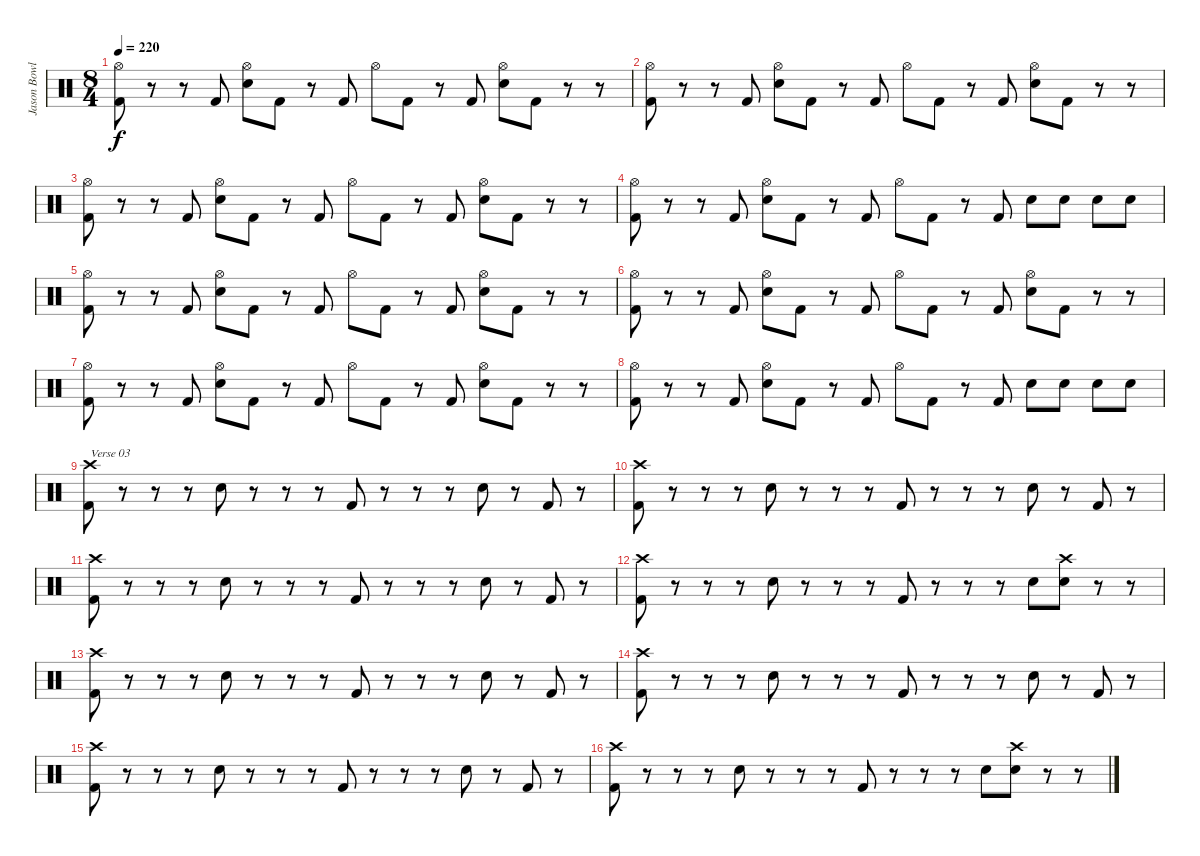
\track ("Jason Bowld" "Jason Bowl") {instrument percussion}
\staff {score}
\articulation defaults
\ts (8 4)
\tempo 220
\clef neutral
\ks c
("Hi-Hat (open)" "Kick (hit) 2").8{dy f} r.8 r.8 "Kick (hit) 2".8 ("Hi-Hat (open)" "Snare (hit) 2").8 "Kick (hit) 2".8 r.8 "Kick (hit) 2".8 "Hi-Hat (open)".8 "Kick (hit) 2".8 r.8 "Kick (hit) 2".8 ("Hi-Hat (open)" "Snare (hit) 2").8 "Kick (hit) 2".8 r.8 r.8 |
("Hi-Hat (open)" "Kick (hit) 2").8 r.8 r.8 "Kick (hit) 2".8 ("Hi-Hat (open)" "Snare (hit) 2").8 "Kick (hit) 2".8 r.8 "Kick (hit) 2".8 "Hi-Hat (open)".8 "Kick (hit) 2".8 r.8 "Kick (hit) 2".8 ("Hi-Hat (open)" "Snare (hit) 2").8 "Kick (hit) 2".8 r.8 r.8 |
("Hi-Hat (open)" "Kick (hit) 2").8 r.8 r.8 "Kick (hit) 2".8 ("Hi-Hat (open)" "Snare (hit) 2").8 "Kick (hit) 2".8 r.8 "Kick (hit) 2".8 "Hi-Hat (open)".8 "Kick (hit) 2".8 r.8 "Kick (hit) 2".8 ("Hi-Hat (open)" "Snare (hit) 2").8 "Kick (hit) 2".8 r.8 r.8 |
("Hi-Hat (open)" "Kick (hit) 2").8 r.8 r.8 "Kick (hit) 2".8 ("Hi-Hat (open)" "Snare (hit) 2").8 "Kick (hit) 2".8 r.8 "Kick (hit) 2".8 "Hi-Hat (open)".8 "Kick (hit) 2".8 r.8 "Kick (hit) 2".8 "Snare (hit) 2".8 "Snare (hit) 2".8 "Snare (hit) 2".8 "Snare (hit) 2".8 |
("Hi-Hat (open)" "Kick (hit) 2").8 r.8 r.8 "Kick (hit) 2".8 ("Hi-Hat (open)" "Snare (hit) 2").8 "Kick (hit) 2".8 r.8 "Kick (hit) 2".8 "Hi-Hat (open)".8 "Kick (hit) 2".8 r.8 "Kick (hit) 2".8 ("Hi-Hat (open)" "Snare (hit) 2").8 "Kick (hit) 2".8 r.8 r.8 |
("Hi-Hat (open)" "Kick (hit) 2").8 r.8 r.8 "Kick (hit) 2".8 ("Hi-Hat (open)" "Snare (hit) 2").8 "Kick (hit) 2".8 r.8 "Kick (hit) 2".8 "Hi-Hat (open)".8 "Kick (hit) 2".8 r.8 "Kick (hit) 2".8 ("Hi-Hat (open)" "Snare (hit) 2").8 "Kick (hit) 2".8 r.8 r.8 |
("Hi-Hat (open)" "Kick (hit) 2").8 r.8 r.8 "Kick (hit) 2".8 ("Hi-Hat (open)" "Snare (hit) 2").8 "Kick (hit) 2".8 r.8 "Kick (hit) 2".8 "Hi-Hat (open)".8 "Kick (hit) 2".8 r.8 "Kick (hit) 2".8 ("Hi-Hat (open)" "Snare (hit) 2").8 "Kick (hit) 2".8 r.8 r.8 |
("Hi-Hat (open)" "Kick (hit) 2").8 r.8 r.8 "Kick (hit) 2".8 ("Hi-Hat (open)" "Snare (hit) 2").8 "Kick (hit) 2".8 r.8 "Kick (hit) 2".8 "Hi-Hat (open)".8 "Kick (hit) 2".8 r.8 "Kick (hit) 2".8 "Snare (hit) 2".8 "Snare (hit) 2".8 "Snare (hit) 2".8 "Snare (hit) 2".8 |
("Kick (hit) 2" "Crash high (hit)").8{txt "Verse 03"} r.8 r.8 r.8 "Snare (hit) 2".8 r.8 r.8 r.8 "Kick (hit) 2".8 r.8 r.8 r.8 "Snare (hit) 2".8 r.8 "Kick (hit) 2".8 r.8 |
("Kick (hit) 2" "Crash high (hit)").8 r.8 r.8 r.8 "Snare (hit) 2".8 r.8 r.8 r.8 "Kick (hit) 2".8 r.8 r.8 r.8 "Snare (hit) 2".8 r.8 "Kick (hit) 2".8 r.8 |
("Kick (hit) 2" "Crash high (hit)").8 r.8 r.8 r.8 "Snare (hit) 2".8 r.8 r.8 r.8 "Kick (hit) 2".8 r.8 r.8 r.8 "Snare (hit) 2".8 r.8 "Kick (hit) 2".8 r.8 |
("Kick (hit) 2" "Crash high (hit)").8 r.8 r.8 r.8 "Snare (hit) 2".8 r.8 r.8 r.8 "Kick (hit) 2".8 r.8 r.8 r.8 "Snare (hit) 2".8 ("Snare (hit) 2" "Crash high (hit)").8 r.8 r.8 |
("Kick (hit) 2" "Crash high (hit)").8 r.8 r.8 r.8 "Snare (hit) 2".8 r.8 r.8 r.8 "Kick (hit) 2".8 r.8 r.8 r.8 "Snare (hit) 2".8 r.8 "Kick (hit) 2".8 r.8 |
("Kick (hit) 2" "Crash high (hit)").8 r.8 r.8 r.8 "Snare (hit) 2".8 r.8 r.8 r.8 "Kick (hit) 2".8 r.8 r.8 r.8 "Snare (hit) 2".8 r.8 "Kick (hit) 2".8 r.8 |
("Kick (hit) 2" "Crash high (hit)").8 r.8 r.8 r.8 "Snare (hit) 2".8 r.8 r.8 r.8 "Kick (hit) 2".8 r.8 r.8 r.8 "Snare (hit) 2".8 r.8 "Kick (hit) 2".8 r.8 |
("Kick (hit) 2" "Crash high (hit)").8 r.8 r.8 r.8 "Snare (hit) 2".8 r.8 r.8 r.8 "Kick (hit) 2".8 r.8 r.8 r.8 "Snare (hit) 2".8 ("Snare (hit) 2" "Crash high (hit)").8 r.8 r.8
